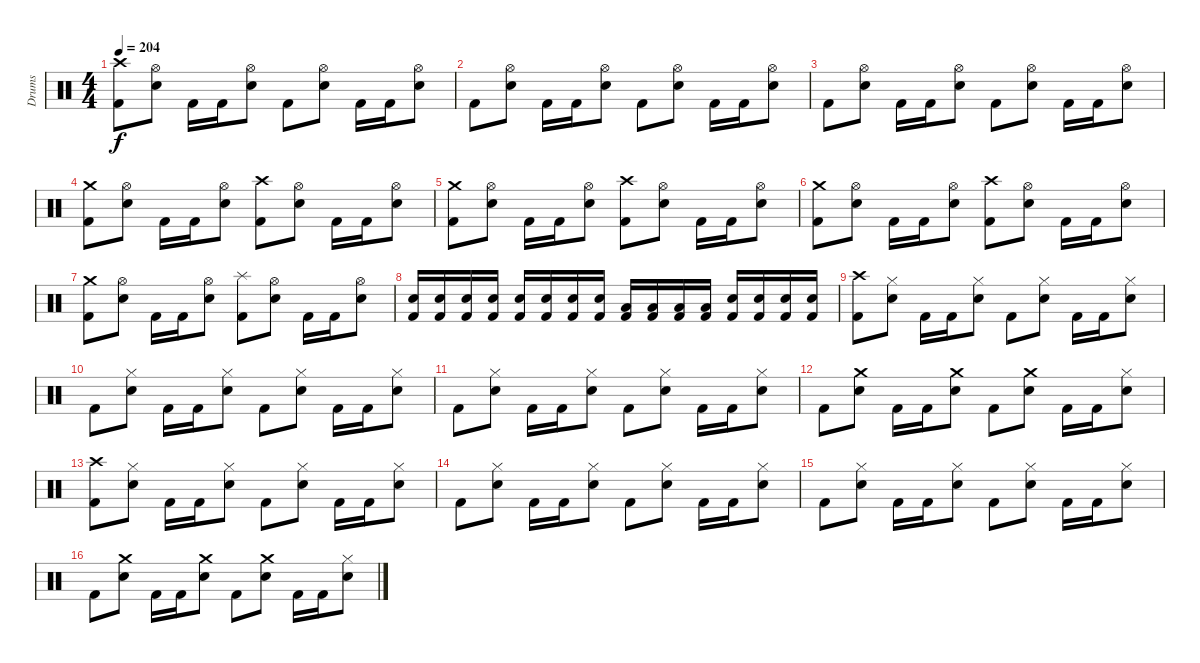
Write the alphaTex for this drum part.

\track ("Drums" "Drums") {instrument percussion}
\staff {score}
\articulation defaults
\ts (4 4)
\tempo 204
\clef neutral
\ks c
("Crash high (hit)" "Kick (hit) 2").8{dy f} ("Hi-Hat (open)" "Electric Snare (hit)").8 "Kick (hit) 2".16 "Kick (hit) 2".16 ("Hi-Hat (open)" "Electric Snare (hit)").8 "Kick (hit) 2".8 ("Hi-Hat (open)" "Electric Snare (hit)").8 "Kick (hit) 2".16 "Kick (hit) 2".16 ("Hi-Hat (open)" "Electric Snare (hit)").8 |
"Kick (hit) 2".8 ("Hi-Hat (open)" "Electric Snare (hit)").8 "Kick (hit) 2".16 "Kick (hit) 2".16 ("Hi-Hat (open)" "Electric Snare (hit)").8 "Kick (hit) 2".8 ("Hi-Hat (open)" "Electric Snare (hit)").8 "Kick (hit) 2".16 "Kick (hit) 2".16 ("Hi-Hat (open)" "Electric Snare (hit)").8 |
"Kick (hit) 2".8 ("Hi-Hat (open)" "Electric Snare (hit)").8 "Kick (hit) 2".16 "Kick (hit) 2".16 ("Hi-Hat (open)" "Electric Snare (hit)").8 "Kick (hit) 2".8 ("Hi-Hat (open)" "Electric Snare (hit)").8 "Kick (hit) 2".16 "Kick (hit) 2".16 ("Hi-Hat (open)" "Electric Snare (hit)").8 |
("Crash medium (hit)" "Kick (hit) 2").8 ("Hi-Hat (open)" "Electric Snare (hit)").8 "Kick (hit) 2".16 "Kick (hit) 2".16 ("Hi-Hat (open)" "Electric Snare (hit)").8 ("Crash high (hit)" "Kick (hit) 2").8 ("Hi-Hat (open)" "Electric Snare (hit)").8 "Kick (hit) 2".16 "Kick (hit) 2".16 ("Hi-Hat (open)" "Electric Snare (hit)").8 |
("Crash medium (hit)" "Kick (hit) 2").8 ("Hi-Hat (open)" "Electric Snare (hit)").8 "Kick (hit) 2".16 "Kick (hit) 2".16 ("Hi-Hat (open)" "Electric Snare (hit)").8 ("Crash high (hit)" "Kick (hit) 2").8 ("Hi-Hat (open)" "Electric Snare (hit)").8 "Kick (hit) 2".16 "Kick (hit) 2".16 ("Hi-Hat (open)" "Electric Snare (hit)").8 |
("Crash medium (hit)" "Kick (hit) 2").8 ("Hi-Hat (open)" "Electric Snare (hit)").8 "Kick (hit) 2".16 "Kick (hit) 2".16 ("Hi-Hat (open)" "Electric Snare (hit)").8 ("Crash high (hit)" "Kick (hit) 2").8 ("Hi-Hat (open)" "Electric Snare (hit)").8 "Kick (hit) 2".16 "Kick (hit) 2".16 ("Hi-Hat (open)" "Electric Snare (hit)").8 |
("Crash medium (hit)" "Kick (hit) 2").8 ("Hi-Hat (open)" "Electric Snare (hit)").8 "Kick (hit) 2".16 "Kick (hit) 2".16 ("Hi-Hat (open)" "Electric Snare (hit)").8 ("Splash (hit)" "Kick (hit) 2").8 ("Hi-Hat (open)" "Electric Snare (hit)").8 "Kick (hit) 2".16 "Kick (hit) 2".16 ("Hi-Hat (open)" "Electric Snare (hit)").8 |
("Electric Snare (hit)" "Kick (hit) 2").16 ("Electric Snare (hit)" "Kick (hit) 2").16 ("Electric Snare (hit)" "Kick (hit) 2").16 ("Electric Snare (hit)" "Kick (hit) 2").16 ("Electric Snare (hit)" "Kick (hit) 2").16 ("Electric Snare (hit)" "Kick (hit) 2").16 ("Electric Snare (hit)" "Kick (hit) 2").16 ("Electric Snare (hit)" "Kick (hit) 2").16 ("Low Tom (hit)" "Kick (hit) 2").16 ("Low Tom (hit)" "Kick (hit) 2").16 ("Low Tom (hit)" "Kick (hit) 2").16 ("Low Tom (hit)" "Kick (hit) 2").16 ("Electric Snare (hit)" "Kick (hit) 2").16 ("Electric Snare (hit)" "Kick (hit) 2").16 ("Electric Snare (hit)" "Kick (hit) 2").16 ("Electric Snare (hit)" "Kick (hit) 2").16 |
("Crash high (hit)" "Kick (hit) 2").8 ("Hi-Hat (closed)" "Electric Snare (hit)").8 "Kick (hit) 2".16 "Kick (hit) 2".16 ("Hi-Hat (closed)" "Electric Snare (hit)").8 "Kick (hit) 2".8 ("Hi-Hat (closed)" "Electric Snare (hit)").8 "Kick (hit) 2".16 "Kick (hit) 2".16 ("Hi-Hat (closed)" "Electric Snare (hit)").8 |
"Kick (hit) 2".8 ("Hi-Hat (closed)" "Electric Snare (hit)").8 "Kick (hit) 2".16 "Kick (hit) 2".16 ("Hi-Hat (closed)" "Electric Snare (hit)").8 "Kick (hit) 2".8 ("Hi-Hat (closed)" "Electric Snare (hit)").8 "Kick (hit) 2".16 "Kick (hit) 2".16 ("Hi-Hat (closed)" "Electric Snare (hit)").8 |
"Kick (hit) 2".8 ("Hi-Hat (closed)" "Electric Snare (hit)").8 "Kick (hit) 2".16 "Kick (hit) 2".16 ("Hi-Hat (closed)" "Electric Snare (hit)").8 "Kick (hit) 2".8 ("Hi-Hat (closed)" "Electric Snare (hit)").8 "Kick (hit) 2".16 "Kick (hit) 2".16 ("Hi-Hat (closed)" "Electric Snare (hit)").8 |
"Kick (hit) 2".8 ("Crash medium (hit)" "Electric Snare (hit)").8 "Kick (hit) 2".16 "Kick (hit) 2".16 ("Crash medium (hit)" "Electric Snare (hit)").8 "Kick (hit) 2".8 ("Crash medium (hit)" "Electric Snare (hit)").8 "Kick (hit) 2".16 "Kick (hit) 2".16 ("Hi-Hat (closed)" "Electric Snare (hit)").8 |
("Crash high (hit)" "Kick (hit) 2").8 ("Hi-Hat (closed)" "Electric Snare (hit)").8 "Kick (hit) 2".16 "Kick (hit) 2".16 ("Hi-Hat (closed)" "Electric Snare (hit)").8 "Kick (hit) 2".8 ("Hi-Hat (closed)" "Electric Snare (hit)").8 "Kick (hit) 2".16 "Kick (hit) 2".16 ("Hi-Hat (closed)" "Electric Snare (hit)").8 |
"Kick (hit) 2".8 ("Hi-Hat (closed)" "Electric Snare (hit)").8 "Kick (hit) 2".16 "Kick (hit) 2".16 ("Hi-Hat (closed)" "Electric Snare (hit)").8 "Kick (hit) 2".8 ("Hi-Hat (closed)" "Electric Snare (hit)").8 "Kick (hit) 2".16 "Kick (hit) 2".16 ("Hi-Hat (closed)" "Electric Snare (hit)").8 |
"Kick (hit) 2".8 ("Hi-Hat (closed)" "Electric Snare (hit)").8 "Kick (hit) 2".16 "Kick (hit) 2".16 ("Hi-Hat (closed)" "Electric Snare (hit)").8 "Kick (hit) 2".8 ("Hi-Hat (closed)" "Electric Snare (hit)").8 "Kick (hit) 2".16 "Kick (hit) 2".16 ("Hi-Hat (closed)" "Electric Snare (hit)").8 |
"Kick (hit) 2".8 ("Crash medium (hit)" "Electric Snare (hit)").8 "Kick (hit) 2".16 "Kick (hit) 2".16 ("Crash medium (hit)" "Electric Snare (hit)").8 "Kick (hit) 2".8 ("Crash medium (hit)" "Electric Snare (hit)").8 "Kick (hit) 2".16 "Kick (hit) 2".16 ("Hi-Hat (closed)" "Electric Snare (hit)").8
